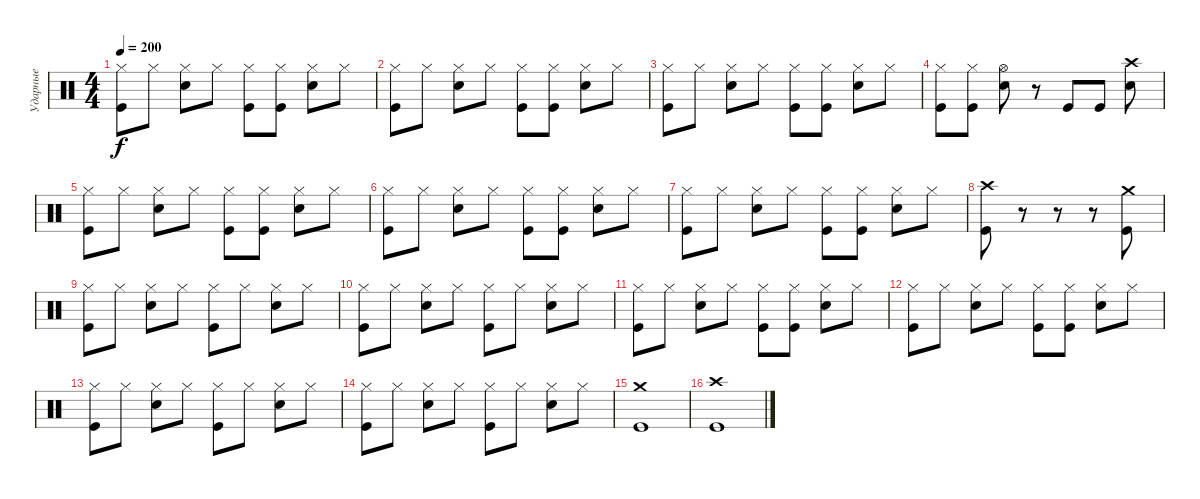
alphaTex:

\track ("Ударные" "Ударные") {instrument percussion}
\staff {score}
\articulation defaults
\ts (4 4)
\tempo 200
\clef neutral
\ks c
("Kick (hit)" "Hi-Hat (closed)").8{dy f} "Hi-Hat (closed)".8 ("Electric Snare (hit)" "Hi-Hat (closed)").8 "Hi-Hat (closed)".8 ("Kick (hit)" "Hi-Hat (closed)").8 ("Kick (hit)" "Hi-Hat (closed)").8 ("Electric Snare (hit)" "Hi-Hat (closed)").8 "Hi-Hat (closed)".8 |
("Kick (hit)" "Hi-Hat (closed)").8 "Hi-Hat (closed)".8 ("Electric Snare (hit)" "Hi-Hat (closed)").8 "Hi-Hat (closed)".8 ("Kick (hit)" "Hi-Hat (closed)").8 ("Kick (hit)" "Hi-Hat (closed)").8 ("Electric Snare (hit)" "Hi-Hat (closed)").8 "Hi-Hat (closed)".8 |
("Kick (hit)" "Hi-Hat (closed)").8 "Hi-Hat (closed)".8 ("Electric Snare (hit)" "Hi-Hat (closed)").8 "Hi-Hat (closed)".8 ("Kick (hit)" "Hi-Hat (closed)").8 ("Kick (hit)" "Hi-Hat (closed)").8 ("Electric Snare (hit)" "Hi-Hat (closed)").8 "Hi-Hat (closed)".8 |
("Kick (hit)" "Hi-Hat (closed)").8 ("Kick (hit)" "Hi-Hat (closed)").8 ("Electric Snare (hit)" "Hi-Hat (open)").8 r.8 "Kick (hit)".8 "Kick (hit)".8 ("Electric Snare (hit)" "Crash high (hit)").8 |
("Kick (hit)" "Hi-Hat (closed)").8 "Hi-Hat (closed)".8 ("Electric Snare (hit)" "Hi-Hat (closed)").8 "Hi-Hat (closed)".8 ("Kick (hit)" "Hi-Hat (closed)").8 ("Kick (hit)" "Hi-Hat (closed)").8 ("Electric Snare (hit)" "Hi-Hat (closed)").8 "Hi-Hat (closed)".8 |
("Kick (hit)" "Hi-Hat (closed)").8 "Hi-Hat (closed)".8 ("Electric Snare (hit)" "Hi-Hat (closed)").8 "Hi-Hat (closed)".8 ("Kick (hit)" "Hi-Hat (closed)").8 ("Kick (hit)" "Hi-Hat (closed)").8 ("Electric Snare (hit)" "Hi-Hat (closed)").8 "Hi-Hat (closed)".8 |
("Kick (hit)" "Hi-Hat (closed)").8 "Hi-Hat (closed)".8 ("Electric Snare (hit)" "Hi-Hat (closed)").8 "Hi-Hat (closed)".8 ("Kick (hit)" "Hi-Hat (closed)").8 ("Kick (hit)" "Hi-Hat (closed)").8 ("Electric Snare (hit)" "Hi-Hat (closed)").8 "Hi-Hat (closed)".8 |
("Kick (hit)" "Crash high (hit)").8 r.8 r.8 r.8 ("Kick (hit)" "Crash medium (hit)").8 |
("Kick (hit)" "Hi-Hat (closed)").8 "Hi-Hat (closed)".8 ("Electric Snare (hit)" "Hi-Hat (closed)").8 "Hi-Hat (closed)".8 ("Kick (hit)" "Hi-Hat (closed)").8 "Hi-Hat (closed)".8 ("Electric Snare (hit)" "Hi-Hat (closed)").8 "Hi-Hat (closed)".8 |
("Kick (hit)" "Hi-Hat (closed)").8 "Hi-Hat (closed)".8 ("Electric Snare (hit)" "Hi-Hat (closed)").8 "Hi-Hat (closed)".8 ("Kick (hit)" "Hi-Hat (closed)").8 "Hi-Hat (closed)".8 ("Electric Snare (hit)" "Hi-Hat (closed)").8 "Hi-Hat (closed)".8 |
("Kick (hit)" "Hi-Hat (closed)").8 "Hi-Hat (closed)".8 ("Electric Snare (hit)" "Hi-Hat (closed)").8 "Hi-Hat (closed)".8 ("Kick (hit)" "Hi-Hat (closed)").8 ("Kick (hit)" "Hi-Hat (closed)").8 ("Electric Snare (hit)" "Hi-Hat (closed)").8 "Hi-Hat (closed)".8 |
("Kick (hit)" "Hi-Hat (closed)").8 "Hi-Hat (closed)".8 ("Electric Snare (hit)" "Hi-Hat (closed)").8 "Hi-Hat (closed)".8 ("Kick (hit)" "Hi-Hat (closed)").8 ("Kick (hit)" "Hi-Hat (closed)").8 ("Electric Snare (hit)" "Hi-Hat (closed)").8 "Hi-Hat (closed)".8 |
("Kick (hit)" "Hi-Hat (closed)").8 "Hi-Hat (closed)".8 ("Electric Snare (hit)" "Hi-Hat (closed)").8 "Hi-Hat (closed)".8 ("Kick (hit)" "Hi-Hat (closed)").8 "Hi-Hat (closed)".8 ("Electric Snare (hit)" "Hi-Hat (closed)").8 "Hi-Hat (closed)".8 |
("Kick (hit)" "Hi-Hat (closed)").8 "Hi-Hat (closed)".8 ("Electric Snare (hit)" "Hi-Hat (closed)").8 "Hi-Hat (closed)".8 ("Kick (hit)" "Hi-Hat (closed)").8 "Hi-Hat (closed)".8 ("Electric Snare (hit)" "Hi-Hat (closed)").8 "Hi-Hat (closed)".8 |
("Kick (hit)" "Crash medium (hit)").1 |
("Kick (hit)" "Crash high (hit)").1
